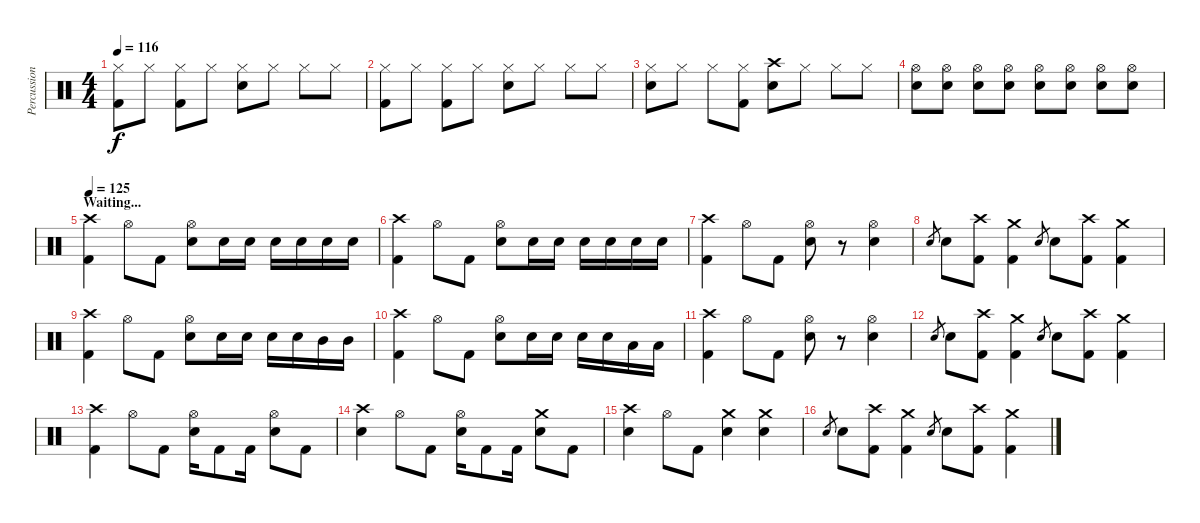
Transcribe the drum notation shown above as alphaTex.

\track ("Percussion" "Percussion") {instrument percussion}
\staff {score}
\articulation defaults
\ts (4 4)
\tempo 116
\clef neutral
\ks c
("Kick (hit) 2" "Hi-Hat (closed)").8{dy f} "Hi-Hat (closed)".8 ("Kick (hit) 2" "Hi-Hat (closed)").8 "Hi-Hat (closed)".8 ("Electric Snare (hit)" "Hi-Hat (closed)").8 "Hi-Hat (closed)".8 "Hi-Hat (closed)".8 "Hi-Hat (closed)".8 |
("Kick (hit) 2" "Hi-Hat (closed)").8 "Hi-Hat (closed)".8 ("Kick (hit) 2" "Hi-Hat (closed)").8 "Hi-Hat (closed)".8 ("Electric Snare (hit)" "Hi-Hat (closed)").8 "Hi-Hat (closed)".8 "Hi-Hat (closed)".8 "Hi-Hat (closed)".8 |
("Electric Snare (hit)" "Hi-Hat (closed)").8 "Hi-Hat (closed)".8 "Hi-Hat (closed)".8 ("Kick (hit) 2" "Hi-Hat (closed)").8 ("Electric Snare (hit)" "Crash high (hit)").8 "Hi-Hat (closed)".8 "Hi-Hat (closed)".8 "Hi-Hat (closed)".8 |
("Electric Snare (hit)" "Hi-Hat (open)").8 ("Electric Snare (hit)" "Hi-Hat (open)").8 ("Electric Snare (hit)" "Hi-Hat (open)").8 ("Electric Snare (hit)" "Hi-Hat (open)").8 ("Electric Snare (hit)" "Hi-Hat (open)").8 ("Electric Snare (hit)" "Hi-Hat (open)").8 ("Electric Snare (hit)" "Hi-Hat (open)").8 ("Electric Snare (hit)" "Hi-Hat (open)").8 |
\section ("" "Waiting...")
\tempo 125
("Kick (hit) 2" "Crash high (hit)").4 "Hi-Hat (open)".8 "Kick (hit) 2".8 ("Electric Snare (hit)" "Hi-Hat (open)").8 "Electric Snare (hit)".16 "Electric Snare (hit)".16 "Electric Snare (hit)".16 "Electric Snare (hit)".16 "Electric Snare (hit)".16 "Electric Snare (hit)".16 |
("Kick (hit) 2" "Crash high (hit)").4 "Hi-Hat (open)".8 "Kick (hit) 2".8 ("Electric Snare (hit)" "Hi-Hat (open)").8 "Electric Snare (hit)".16 "Electric Snare (hit)".16 "Electric Snare (hit)".16 "Electric Snare (hit)".16 "Electric Snare (hit)".16 "Electric Snare (hit)".16 |
("Kick (hit) 2" "Crash high (hit)").4 "Hi-Hat (open)".8 "Kick (hit) 2".8 ("Electric Snare (hit)" "Hi-Hat (open)").8 r.8 ("Electric Snare (hit)" "Hi-Hat (open)").4 |
"Electric Snare (hit)".8{gr} "Electric Snare (hit)".8 ("Kick (hit) 2" "Crash high (hit)").8 ("Kick (hit) 2" "Crash medium (hit)").4 "Electric Snare (hit)".8{gr} "Electric Snare (hit)".8 ("Kick (hit) 2" "Crash high (hit)").8 ("Kick (hit) 2" "Crash medium (hit)").4 |
("Kick (hit) 2" "Crash high (hit)").4 "Hi-Hat (open)".8 "Kick (hit) 2".8 ("Electric Snare (hit)" "Hi-Hat (open)").8 "Electric Snare (hit)".16 "Electric Snare (hit)".16 "Electric Snare (hit)".16 "Electric Snare (hit)".16 "Mid Tom (hit)".16 "Mid Tom (hit)".16 |
("Kick (hit) 2" "Crash high (hit)").4 "Hi-Hat (open)".8 "Kick (hit) 2".8 ("Electric Snare (hit)" "Hi-Hat (open)").8 "Electric Snare (hit)".16 "Electric Snare (hit)".16 "Electric Snare (hit)".16 "Electric Snare (hit)".16 "Low Tom (hit)".16 "Low Tom (hit)".16 |
("Kick (hit) 2" "Crash high (hit)").4 "Hi-Hat (open)".8 "Kick (hit) 2".8 ("Electric Snare (hit)" "Hi-Hat (open)").8 r.8 ("Electric Snare (hit)" "Hi-Hat (open)").4 |
"Electric Snare (hit)".8{gr} "Electric Snare (hit)".8 ("Kick (hit) 2" "Crash high (hit)").8 ("Kick (hit) 2" "Crash medium (hit)").4 "Electric Snare (hit)".8{gr} "Electric Snare (hit)".8 ("Kick (hit) 2" "Crash high (hit)").8 ("Kick (hit) 2" "Crash medium (hit)").4 |
("Kick (hit) 2" "Crash high (hit)").4 "Hi-Hat (open)".8 "Kick (hit) 2".8 ("Electric Snare (hit)" "Hi-Hat (open)").16 "Kick (hit) 2".8 "Kick (hit) 2".16 ("Electric Snare (hit)" "Hi-Hat (open)").8 "Kick (hit) 2".8 |
("Electric Snare (hit)" "Crash high (hit)").4 "Hi-Hat (open)".8 "Kick (hit) 2".8 ("Electric Snare (hit)" "Hi-Hat (open)").16 "Kick (hit) 2".8 "Kick (hit) 2".16 ("Electric Snare (hit)" "Crash medium (hit)").8 "Kick (hit) 2".8 |
("Electric Snare (hit)" "Crash high (hit)").4 "Hi-Hat (open)".8 "Kick (hit) 2".8 ("Electric Snare (hit)" "Crash medium (hit)").4 ("Electric Snare (hit)" "Crash medium (hit)").4 |
"Electric Snare (hit)".8{gr} "Electric Snare (hit)".8 ("Kick (hit) 2" "Crash high (hit)").8 ("Kick (hit) 2" "Crash medium (hit)").4 "Electric Snare (hit)".8{gr} "Electric Snare (hit)".8 ("Kick (hit) 2" "Crash high (hit)").8 ("Kick (hit) 2" "Crash medium (hit)").4
